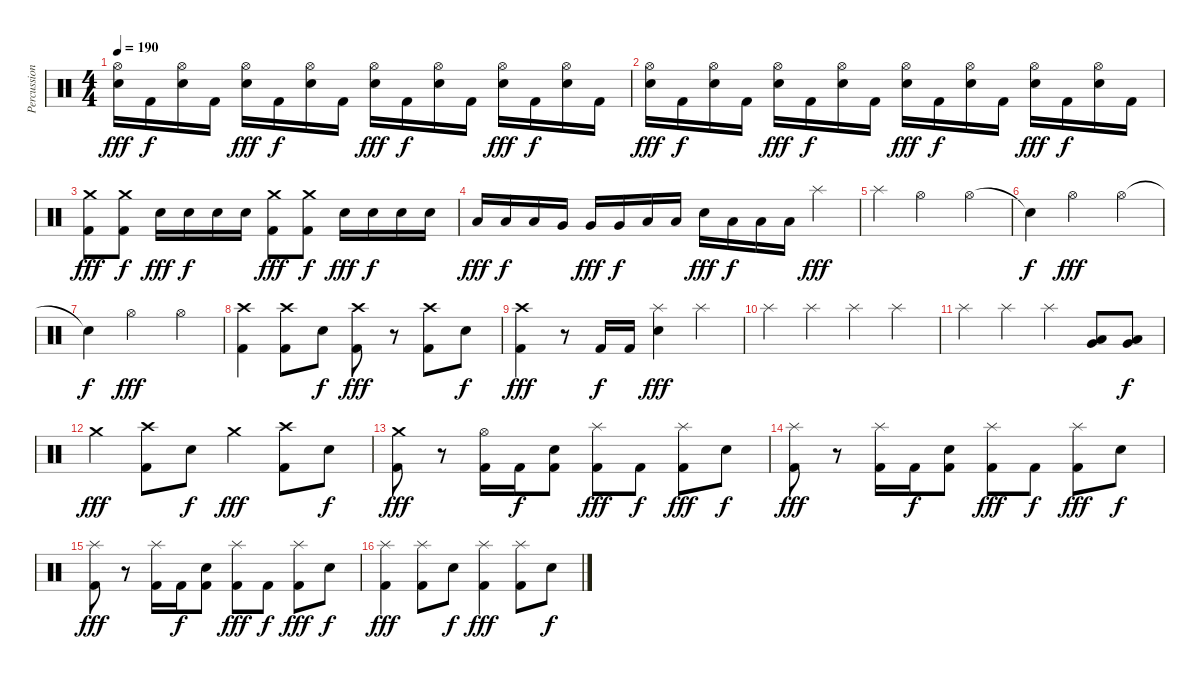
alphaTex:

\track ("Percussions" "Percussion") {instrument percussion}
\staff {score}
\articulation defaults
\ts (4 4)
\tempo 190
\clef neutral
\ks c
("Hi-Hat (open)" "Snare (hit) 2").16{dy fff} "Kick (hit) 2".16{dy f} ("Hi-Hat (open)" "Snare (hit) 2").16 "Kick (hit) 2".16 ("Hi-Hat (open)" "Snare (hit) 2").16{dy fff} "Kick (hit) 2".16{dy f} ("Hi-Hat (open)" "Snare (hit) 2").16 "Kick (hit) 2".16 ("Hi-Hat (open)" "Snare (hit) 2").16{dy fff} "Kick (hit) 2".16{dy f} ("Hi-Hat (open)" "Snare (hit) 2").16 "Kick (hit) 2".16 ("Hi-Hat (open)" "Snare (hit) 2").16{dy fff} "Kick (hit) 2".16{dy f} ("Hi-Hat (open)" "Snare (hit) 2").16 "Kick (hit) 2".16 |
("Hi-Hat (open)" "Snare (hit) 2").16{dy fff} "Kick (hit) 2".16{dy f} ("Hi-Hat (open)" "Snare (hit) 2").16 "Kick (hit) 2".16 ("Hi-Hat (open)" "Snare (hit) 2").16{dy fff} "Kick (hit) 2".16{dy f} ("Hi-Hat (open)" "Snare (hit) 2").16 "Kick (hit) 2".16 ("Hi-Hat (open)" "Snare (hit) 2").16{dy fff} "Kick (hit) 2".16{dy f} ("Hi-Hat (open)" "Snare (hit) 2").16 "Kick (hit) 2".16 ("Hi-Hat (open)" "Snare (hit) 2").16{dy fff} "Kick (hit) 2".16{dy f} ("Hi-Hat (open)" "Snare (hit) 2").16 "Kick (hit) 2".16 |
("Crash medium (hit)" "Kick (hit) 2").8{dy fff} ("Crash medium (hit)" "Kick (hit) 2").8{dy f} "Snare (hit) 2".16{dy fff} "Snare (hit) 2".16{dy f} "Snare (hit) 2".16 "Snare (hit) 2".16 ("Crash medium (hit)" "Kick (hit) 2").8{dy fff} ("Crash medium (hit)" "Kick (hit) 2").8{dy f} "Snare (hit) 2".16{dy fff} "Snare (hit) 2".16{dy f} "Snare (hit) 2".16 "Snare (hit) 2".16 |
"Low Tom (hit)".16{dy fff} "Low Tom (hit)".16{dy f} "Low Tom (hit)".16 "Very Low Tom (hit)".16 "Very Low Tom (hit)".16{dy fff} "Very Low Tom (hit)".16{dy f} "Low Floor Tom (hit)".16 "Low Floor Tom (hit)".16 "Snare (hit) 2".16{dy fff} "Low Tom (hit)".16{dy f} "Low Tom (hit)".16 "Low Tom (hit)".16 "Splash (hit)".4{dy fff} |
"Splash (hit)".4 "Hi-Hat (open)".2 "Hi-Hat (open)".4 |
"Snare (hit)"{t}.4{dy f} "Hi-Hat (open)".2{dy fff} "Hi-Hat (open)".4 |
"Snare (hit)"{t}.4{dy f} "Hi-Hat (open)".2{dy fff} "Hi-Hat (open)".4 |
("Crash high (hit)" "Kick (hit) 2").4 ("Crash high (hit)" "Kick (hit) 2").8 "Snare (hit) 2".8{dy f} ("Crash high (hit)" "Kick (hit) 2").8{dy fff} r.8 ("Crash high (hit)" "Kick (hit) 2").8 "Snare (hit) 2".8{dy f} |
("Crash high (hit)" "Kick (hit) 2").4{dy fff} r.8 "Kick (hit) 2".16{dy f} "Kick (hit) 2".16 ("Splash (hit)" "Snare (hit) 2").4{dy fff} "Splash (hit)".4 |
"Splash (hit)".4 "Splash (hit)".4 "Splash (hit)".4 "Splash (hit)".4 |
"Splash (hit)".4 "Splash (hit)".4 "Splash (hit)".4 ("Very Low Tom (hit)" "Low Floor Tom (hit)").8 ("Very Low Tom (hit)" "Low Floor Tom (hit)").8{dy f} |
"Crash medium (hit)".4{dy fff} ("Crash high (hit)" "Kick (hit) 2").8 "Snare (hit) 2".8{dy f} "Crash medium (hit)".4{dy fff} ("Crash high (hit)" "Kick (hit) 2").8 "Snare (hit) 2".8{dy f} |
("Crash medium (hit)" "Kick (hit) 2").8{dy fff} r.8 ("Hi-Hat (open)" "Kick (hit) 2").16 "Kick (hit) 2".16{dy f} ("Snare (hit) 2" "Kick (hit) 2").8 ("Splash (hit)" "Kick (hit) 2").8{dy fff} "Kick (hit) 2".8{dy f} ("Splash (hit)" "Kick (hit) 2").8{dy fff} "Snare (hit) 2".8{dy f} |
("Splash (hit)" "Kick (hit) 2").8{dy fff} r.8 ("Splash (hit)" "Kick (hit) 2").16 "Kick (hit) 2".16{dy f} ("Snare (hit) 2" "Kick (hit) 2").8 ("Splash (hit)" "Kick (hit) 2").8{dy fff} "Kick (hit) 2".8{dy f} ("Splash (hit)" "Kick (hit) 2").8{dy fff} "Snare (hit) 2".8{dy f} |
("Splash (hit)" "Kick (hit) 2").8{dy fff} r.8 ("Splash (hit)" "Kick (hit) 2").16 "Kick (hit) 2".16{dy f} ("Snare (hit) 2" "Kick (hit) 2").8 ("Splash (hit)" "Kick (hit) 2").8{dy fff} "Kick (hit) 2".8{dy f} ("Splash (hit)" "Kick (hit) 2").8{dy fff} "Snare (hit) 2".8{dy f} |
("Splash (hit)" "Kick (hit) 2").4{dy fff} ("Splash (hit)" "Kick (hit) 2").8 "Snare (hit) 2".8{dy f} ("Splash (hit)" "Kick (hit) 2").4{dy fff} ("Splash (hit)" "Kick (hit) 2").8 "Snare (hit) 2".8{dy f}
